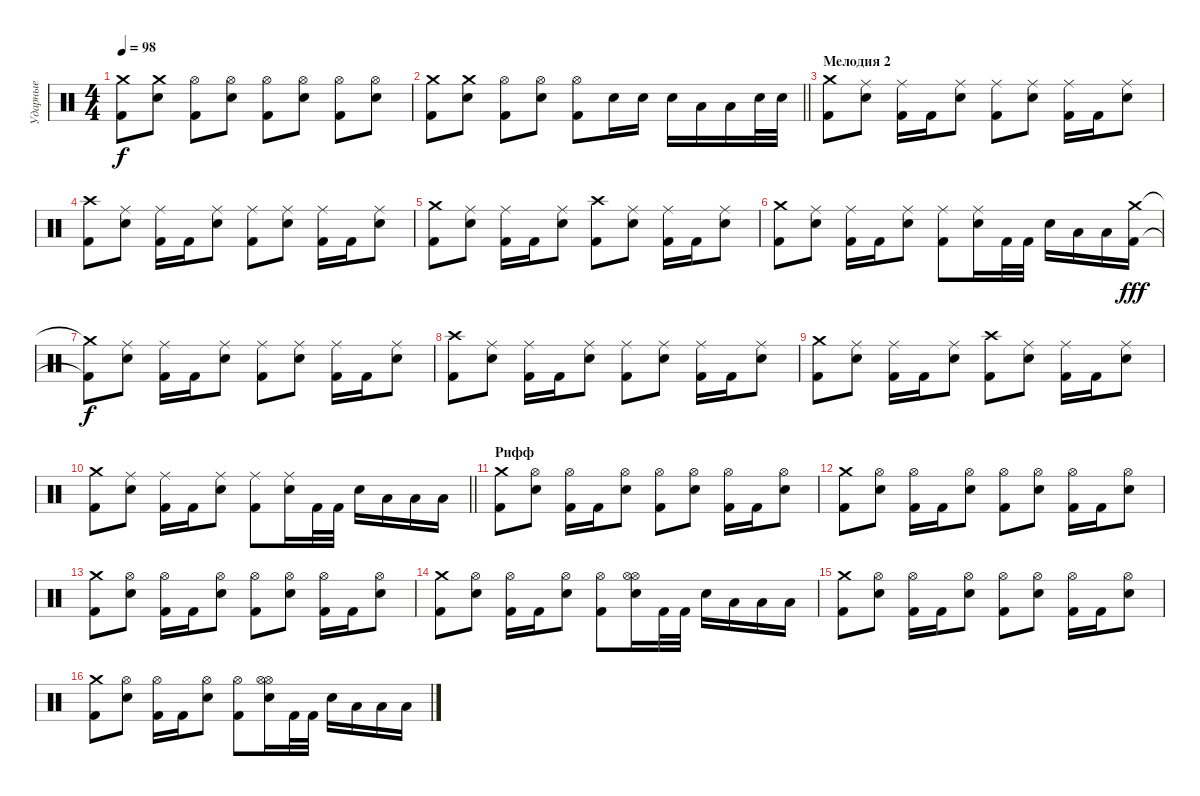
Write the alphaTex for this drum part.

\track ("Ударные" "Ударные") {instrument percussion}
\staff {score}
\articulation defaults
\ts (4 4)
\tempo 98
\clef neutral
\ks c
("Crash medium (hit)" "Kick (hit) 2").8{dy f} ("Crash medium (hit)" "Snare (hit) 2").8 ("Hi-Hat (open)" "Kick (hit) 2").8 ("Hi-Hat (open)" "Snare (hit) 2").8 ("Hi-Hat (open)" "Kick (hit) 2").8 ("Hi-Hat (open)" "Snare (hit) 2").8 ("Hi-Hat (open)" "Kick (hit) 2").8 ("Hi-Hat (open)" "Snare (hit) 2").8 |
\barLineRight lightlight
("Crash medium (hit)" "Kick (hit) 2").8 ("Crash medium (hit)" "Snare (hit) 2").8 ("Hi-Hat (open)" "Kick (hit) 2").8 ("Hi-Hat (open)" "Snare (hit) 2").8 ("Hi-Hat (open)" "Kick (hit) 2").8 "Snare (hit) 2".16 "Snare (hit) 2".16 "Snare (hit) 2".16 "Low Tom (hit)".16 "Low Tom (hit)".16 "Snare (hit) 2".32 "Snare (hit) 2".32 |
\section ("" "Мелодия 2")
("Crash medium (hit)" "Kick (hit) 2").8 ("Ride (middle)" "Snare (hit) 2").8 ("Ride (middle)" "Kick (hit) 2").16 "Kick (hit) 2".16 ("Ride (middle)" "Snare (hit) 2").8 ("Ride (middle)" "Kick (hit) 2").8 ("Ride (middle)" "Snare (hit) 2").8 ("Ride (middle)" "Kick (hit) 2").16 "Kick (hit) 2".16 ("Ride (middle)" "Snare (hit) 2").8 |
("Crash high (hit)" "Kick (hit) 2").8 ("Ride (middle)" "Snare (hit) 2").8 ("Ride (middle)" "Kick (hit) 2").16 "Kick (hit) 2".16 ("Ride (middle)" "Snare (hit) 2").8 ("Ride (middle)" "Kick (hit) 2").8 ("Ride (middle)" "Snare (hit) 2").8 ("Ride (middle)" "Kick (hit) 2").16 "Kick (hit) 2".16 ("Ride (middle)" "Snare (hit) 2").8 |
("Crash medium (hit)" "Kick (hit) 2").8 ("Ride (middle)" "Snare (hit) 2").8 ("Ride (middle)" "Kick (hit) 2").16 "Kick (hit) 2".16 ("Ride (middle)" "Snare (hit) 2").8 ("Crash high (hit)" "Kick (hit) 2").8 ("Ride (middle)" "Snare (hit) 2").8 ("Ride (middle)" "Kick (hit) 2").16 "Kick (hit) 2".16 ("Ride (middle)" "Snare (hit) 2").8 |
("Crash medium (hit)" "Kick (hit) 2").8 ("Ride (middle)" "Snare (hit) 2").8 ("Ride (middle)" "Kick (hit) 2").16 "Kick (hit) 2".16 ("Ride (middle)" "Snare (hit) 2").8 ("Ride (middle)" "Kick (hit) 2").8 ("Ride (middle)" "Snare (hit) 2").16 "Kick (hit) 2".32 "Kick (hit) 2".32 "Snare (hit) 2".16 "Low Tom (hit)".16 "Low Tom (hit)".16 ("Crash medium (hit)" "Kick (hit) 2").16{dy fff} |
("Crash medium (hit)"{t} "Kick (hit) 2"{t}).8{dy f} ("Ride (middle)" "Snare (hit) 2").8 ("Ride (middle)" "Kick (hit) 2").16 "Kick (hit) 2".16 ("Ride (middle)" "Snare (hit) 2").8 ("Ride (middle)" "Kick (hit) 2").8 ("Ride (middle)" "Snare (hit) 2").8 ("Ride (middle)" "Kick (hit) 2").16 "Kick (hit) 2".16 ("Ride (middle)" "Snare (hit) 2").8 |
("Crash high (hit)" "Kick (hit) 2").8 ("Ride (middle)" "Snare (hit) 2").8 ("Ride (middle)" "Kick (hit) 2").16 "Kick (hit) 2".16 ("Ride (middle)" "Snare (hit) 2").8 ("Ride (middle)" "Kick (hit) 2").8 ("Ride (middle)" "Snare (hit) 2").8 ("Ride (middle)" "Kick (hit) 2").16 "Kick (hit) 2".16 ("Ride (middle)" "Snare (hit) 2").8 |
("Crash medium (hit)" "Kick (hit) 2").8 ("Ride (middle)" "Snare (hit) 2").8 ("Ride (middle)" "Kick (hit) 2").16 "Kick (hit) 2".16 ("Ride (middle)" "Snare (hit) 2").8 ("Crash high (hit)" "Kick (hit) 2").8 ("Ride (middle)" "Snare (hit) 2").8 ("Ride (middle)" "Kick (hit) 2").16 "Kick (hit) 2".16 ("Ride (middle)" "Snare (hit) 2").8 |
\barLineRight lightlight
("Crash medium (hit)" "Kick (hit) 2").8 ("Ride (middle)" "Snare (hit) 2").8 ("Ride (middle)" "Kick (hit) 2").16 "Kick (hit) 2".16 ("Ride (middle)" "Snare (hit) 2").8 ("Ride (middle)" "Kick (hit) 2").8 ("Ride (middle)" "Snare (hit) 2").16 "Kick (hit) 2".32 "Kick (hit) 2".32 "Snare (hit) 2".16 "Low Tom (hit)".16 "Low Tom (hit)".16 "Low Tom (hit)".16 |
\section ("" "Рифф")
("Crash medium (hit)" "Kick (hit) 2").8 ("Hi-Hat (open)" "Snare (hit) 2").8 ("Hi-Hat (open)" "Kick (hit) 2").16 "Kick (hit) 2".16 ("Hi-Hat (open)" "Snare (hit) 2").8 ("Hi-Hat (open)" "Kick (hit) 2").8 ("Hi-Hat (open)" "Snare (hit) 2").8 ("Hi-Hat (open)" "Kick (hit) 2").16 "Kick (hit) 2".16 ("Hi-Hat (open)" "Snare (hit) 2").8 |
("Crash medium (hit)" "Kick (hit) 2").8 ("Hi-Hat (open)" "Snare (hit) 2").8 ("Hi-Hat (open)" "Kick (hit) 2").16 "Kick (hit) 2".16 ("Hi-Hat (open)" "Snare (hit) 2").8 ("Hi-Hat (open)" "Kick (hit) 2").8 ("Hi-Hat (open)" "Snare (hit) 2").8 ("Hi-Hat (open)" "Kick (hit) 2").16 "Kick (hit) 2".16 ("Hi-Hat (open)" "Snare (hit) 2").8 |
("Crash medium (hit)" "Kick (hit) 2").8 ("Hi-Hat (open)" "Snare (hit) 2").8 ("Hi-Hat (open)" "Kick (hit) 2").16 "Kick (hit) 2".16 ("Hi-Hat (open)" "Snare (hit) 2").8 ("Hi-Hat (open)" "Kick (hit) 2").8 ("Hi-Hat (open)" "Snare (hit) 2").8 ("Hi-Hat (open)" "Kick (hit) 2").16 "Kick (hit) 2".16 ("Hi-Hat (open)" "Snare (hit) 2").8 |
("Crash medium (hit)" "Kick (hit) 2").8 ("Hi-Hat (open)" "Snare (hit) 2").8 ("Hi-Hat (open)" "Kick (hit) 2").16 "Kick (hit) 2".16 ("Hi-Hat (open)" "Snare (hit) 2").8 ("Hi-Hat (open)" "Kick (hit) 2").8 ("Hi-Hat (open)" "Hi-Hat (open)" "Snare (hit) 2").16 "Kick (hit) 2".32 "Kick (hit) 2".32 "Snare (hit) 2".16 "Low Tom (hit)".16 "Low Tom (hit)".16 "Low Tom (hit)".16 |
("Crash medium (hit)" "Kick (hit) 2").8 ("Hi-Hat (open)" "Snare (hit) 2").8 ("Hi-Hat (open)" "Kick (hit) 2").16 "Kick (hit) 2".16 ("Hi-Hat (open)" "Snare (hit) 2").8 ("Hi-Hat (open)" "Kick (hit) 2").8 ("Hi-Hat (open)" "Snare (hit) 2").8 ("Hi-Hat (open)" "Kick (hit) 2").16 "Kick (hit) 2".16 ("Hi-Hat (open)" "Snare (hit) 2").8 |
("Crash medium (hit)" "Kick (hit) 2").8 ("Hi-Hat (open)" "Snare (hit) 2").8 ("Hi-Hat (open)" "Kick (hit) 2").16 "Kick (hit) 2".16 ("Hi-Hat (open)" "Snare (hit) 2").8 ("Hi-Hat (open)" "Kick (hit) 2").8 ("Hi-Hat (open)" "Hi-Hat (open)" "Snare (hit) 2").16 "Kick (hit) 2".32 "Kick (hit) 2".32 "Snare (hit) 2".16 "Low Tom (hit)".16 "Low Tom (hit)".16 "Low Tom (hit)".16
